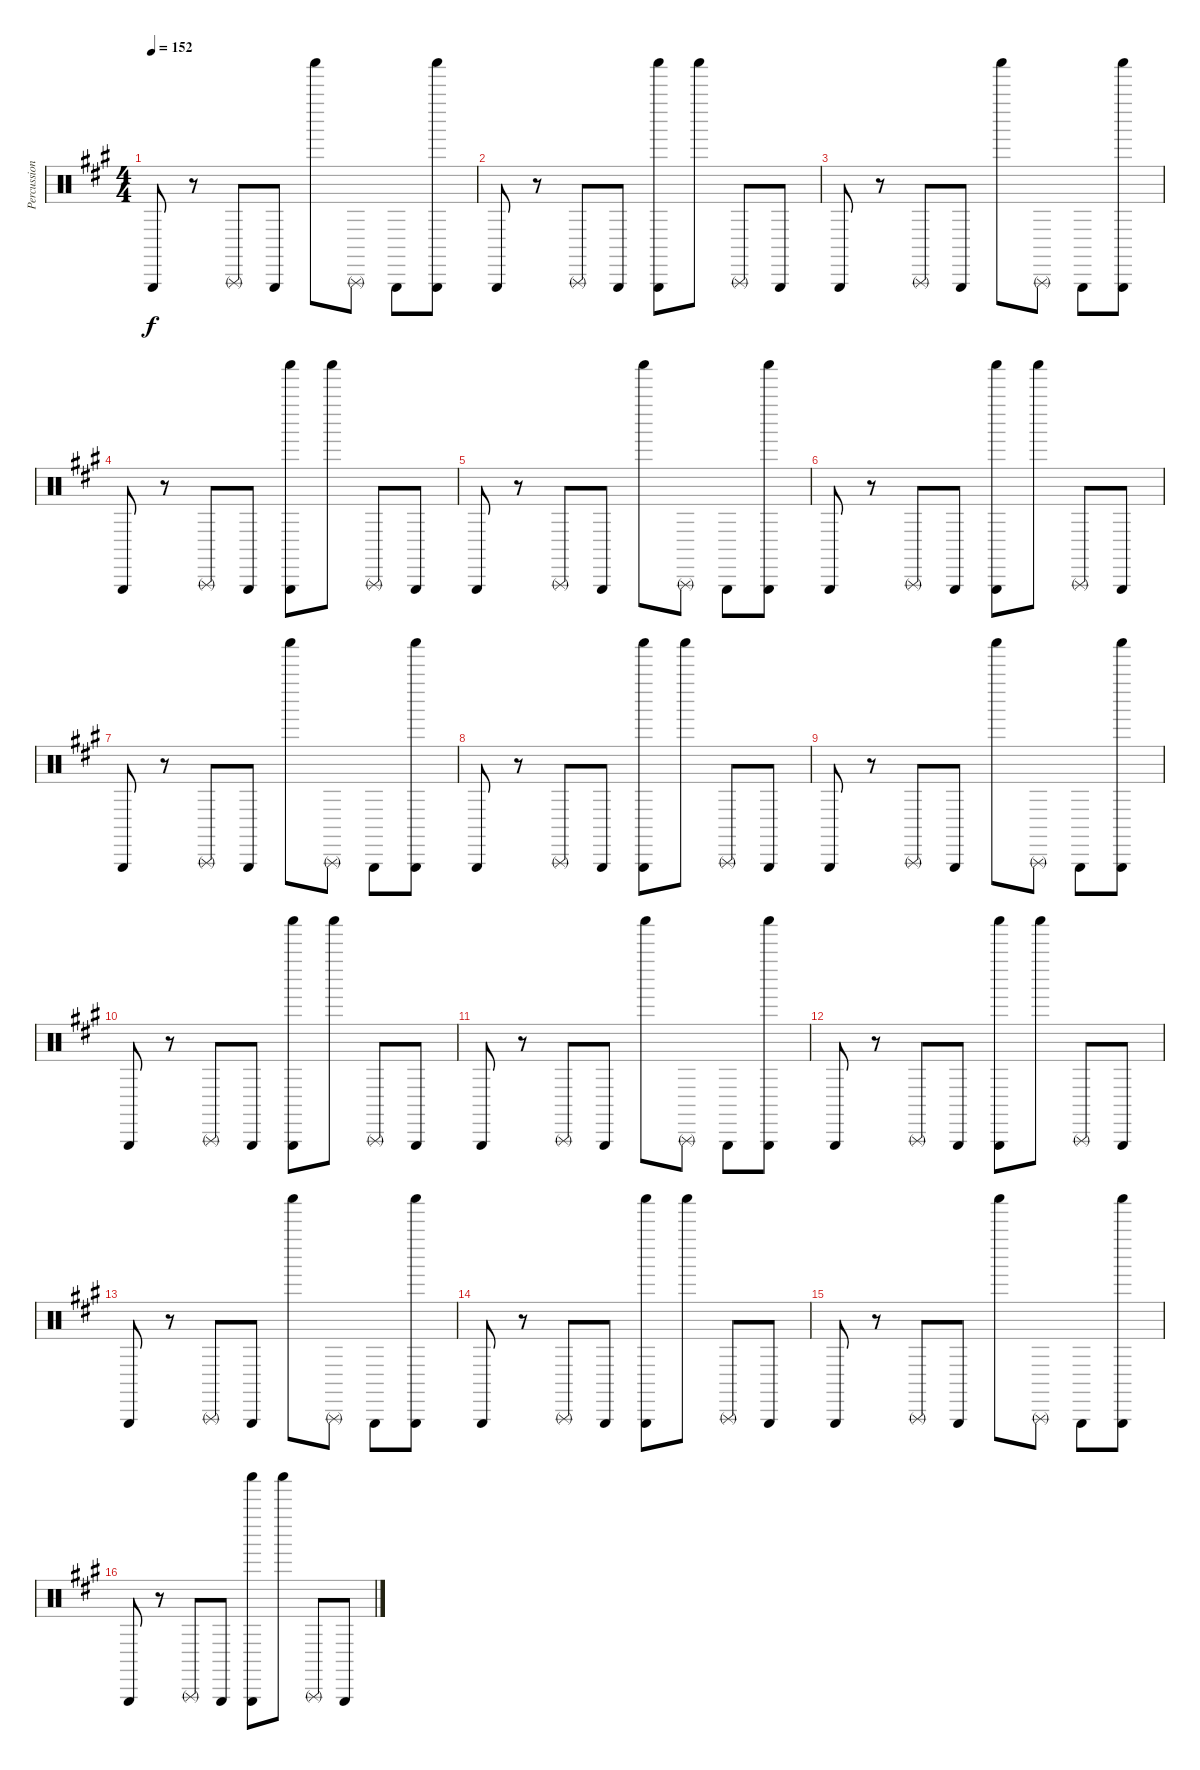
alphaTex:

\track ("Percussions" "Percussion") {instrument percussion}
\staff {score}
\articulation defaults
\ts (4 4)
\tempo 152
\clef neutral
\ks a "Triangle (hit)".8{dy f}
r.8 "Triangle (rnute)".8 "Triangle (hit)".8 "Shaker (hit)".8 "Triangle (rnute)".8 "Triangle (hit)".8 ("Triangle (hit)" "Shaker (hit)").8 |
"Triangle (hit)".8 r.8 "Triangle (rnute)".8 "Triangle (hit)".8 ("Triangle (hit)" "Shaker (hit)").8 "Shaker (hit)".8 "Triangle (rnute)".8 "Triangle (hit)".8 |
"Triangle (hit)".8 r.8 "Triangle (rnute)".8 "Triangle (hit)".8 "Shaker (hit)".8 "Triangle (rnute)".8 "Triangle (hit)".8 ("Triangle (hit)" "Shaker (hit)").8 |
"Triangle (hit)".8 r.8 "Triangle (rnute)".8 "Triangle (hit)".8 ("Triangle (hit)" "Shaker (hit)").8 "Shaker (hit)".8 "Triangle (rnute)".8 "Triangle (hit)".8 |
"Triangle (hit)".8 r.8 "Triangle (rnute)".8 "Triangle (hit)".8 "Shaker (hit)".8 "Triangle (rnute)".8 "Triangle (hit)".8 ("Triangle (hit)" "Shaker (hit)").8 |
"Triangle (hit)".8 r.8 "Triangle (rnute)".8 "Triangle (hit)".8 ("Triangle (hit)" "Shaker (hit)").8 "Shaker (hit)".8 "Triangle (rnute)".8 "Triangle (hit)".8 |
"Triangle (hit)".8 r.8 "Triangle (rnute)".8 "Triangle (hit)".8 "Shaker (hit)".8 "Triangle (rnute)".8 "Triangle (hit)".8 ("Triangle (hit)" "Shaker (hit)").8 |
"Triangle (hit)".8 r.8 "Triangle (rnute)".8 "Triangle (hit)".8 ("Triangle (hit)" "Shaker (hit)").8 "Shaker (hit)".8 "Triangle (rnute)".8 "Triangle (hit)".8 |
"Triangle (hit)".8 r.8 "Triangle (rnute)".8 "Triangle (hit)".8 "Shaker (hit)".8 "Triangle (rnute)".8 "Triangle (hit)".8 ("Triangle (hit)" "Shaker (hit)").8 |
"Triangle (hit)".8 r.8 "Triangle (rnute)".8 "Triangle (hit)".8 ("Triangle (hit)" "Shaker (hit)").8 "Shaker (hit)".8 "Triangle (rnute)".8 "Triangle (hit)".8 |
"Triangle (hit)".8 r.8 "Triangle (rnute)".8 "Triangle (hit)".8 "Shaker (hit)".8 "Triangle (rnute)".8 "Triangle (hit)".8 ("Triangle (hit)" "Shaker (hit)").8 |
"Triangle (hit)".8 r.8 "Triangle (rnute)".8 "Triangle (hit)".8 ("Triangle (hit)" "Shaker (hit)").8 "Shaker (hit)".8 "Triangle (rnute)".8 "Triangle (hit)".8 |
"Triangle (hit)".8 r.8 "Triangle (rnute)".8 "Triangle (hit)".8 "Shaker (hit)".8 "Triangle (rnute)".8 "Triangle (hit)".8 ("Triangle (hit)" "Shaker (hit)").8 |
"Triangle (hit)".8 r.8 "Triangle (rnute)".8 "Triangle (hit)".8 ("Triangle (hit)" "Shaker (hit)").8 "Shaker (hit)".8 "Triangle (rnute)".8 "Triangle (hit)".8 |
"Triangle (hit)".8 r.8 "Triangle (rnute)".8 "Triangle (hit)".8 "Shaker (hit)".8 "Triangle (rnute)".8 "Triangle (hit)".8 ("Triangle (hit)" "Shaker (hit)").8 |
"Triangle (hit)".8 r.8 "Triangle (rnute)".8 "Triangle (hit)".8 ("Triangle (hit)" "Shaker (hit)").8 "Shaker (hit)".8 "Triangle (rnute)".8 "Triangle (hit)".8
